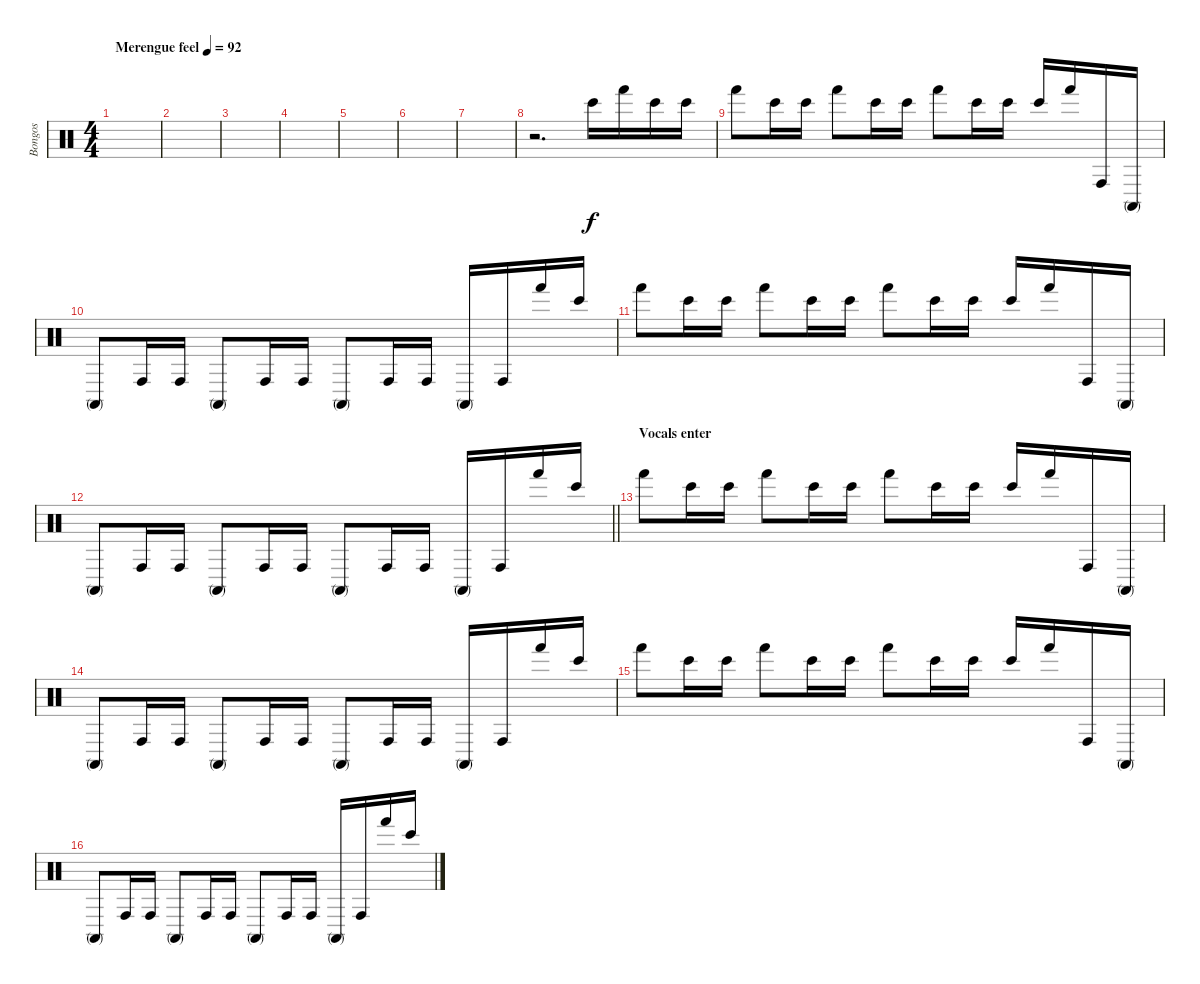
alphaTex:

\track ("Bongos" "Bongos") {instrument percussion}
\staff {score}
\articulation defaults
\ts (4 4)
\tempo (92 "Merengue feel")
\clef neutral
\ks c
|
|
|
|
|
|
|
r.2{d} "Bongo High (hit)".16 "Hand (hit)".16 "Bongo High (hit)".16 "Bongo High (hit)".16 |
"Hand (hit)".8 "Bongo High (hit)".16 "Bongo High (hit)".16 "Hand (hit)".8 "Bongo High (hit)".16 "Bongo High (hit)".16 "Hand (hit)".8 "Bongo High (hit)".16 "Bongo High (hit)".16 "Bongo High (hit)".16 "Hand (hit)".16 "Conga high (hit)".16 "Conga high (mute)".16 |
"Conga high (mute)".8 "Conga high (hit)".16 "Conga high (hit)".16 "Conga high (mute)".8 "Conga high (hit)".16 "Conga high (hit)".16 "Conga high (mute)".8 "Conga high (hit)".16 "Conga high (hit)".16 "Conga high (mute)".16 "Conga high (hit)".16 "Hand (hit)".16 "Bongo High (hit)".16 |
"Hand (hit)".8 "Bongo High (hit)".16 "Bongo High (hit)".16 "Hand (hit)".8 "Bongo High (hit)".16 "Bongo High (hit)".16 "Hand (hit)".8 "Bongo High (hit)".16 "Bongo High (hit)".16 "Bongo High (hit)".16 "Hand (hit)".16 "Conga high (hit)".16 "Conga high (mute)".16 |
\barLineRight lightlight "Conga high (mute)".8 "Conga high (hit)".16 "Conga high (hit)".16 "Conga high (mute)".8 "Conga high (hit)".16 "Conga high (hit)".16 "Conga high (mute)".8 "Conga high (hit)".16 "Conga high (hit)".16 "Conga high (mute)".16 "Conga high (hit)".16 "Hand (hit)".16 "Bongo High (hit)".16
|
\section ("" "Vocals enter")
"Hand (hit)".8 "Bongo High (hit)".16 "Bongo High (hit)".16 "Hand (hit)".8 "Bongo High (hit)".16 "Bongo High (hit)".16 "Hand (hit)".8 "Bongo High (hit)".16 "Bongo High (hit)".16 "Bongo High (hit)".16 "Hand (hit)".16 "Conga high (hit)".16 "Conga high (mute)".16 |
"Conga high (mute)".8 "Conga high (hit)".16 "Conga high (hit)".16 "Conga high (mute)".8 "Conga high (hit)".16 "Conga high (hit)".16 "Conga high (mute)".8 "Conga high (hit)".16 "Conga high (hit)".16 "Conga high (mute)".16 "Conga high (hit)".16 "Hand (hit)".16 "Bongo High (hit)".16 |
"Hand (hit)".8 "Bongo High (hit)".16 "Bongo High (hit)".16 "Hand (hit)".8 "Bongo High (hit)".16 "Bongo High (hit)".16 "Hand (hit)".8 "Bongo High (hit)".16 "Bongo High (hit)".16 "Bongo High (hit)".16 "Hand (hit)".16 "Conga high (hit)".16 "Conga high (mute)".16 |
"Conga high (mute)".8 "Conga high (hit)".16 "Conga high (hit)".16 "Conga high (mute)".8 "Conga high (hit)".16 "Conga high (hit)".16 "Conga high (mute)".8 "Conga high (hit)".16 "Conga high (hit)".16 "Conga high (mute)".16 "Conga high (hit)".16 "Hand (hit)".16 "Bongo High (hit)".16
